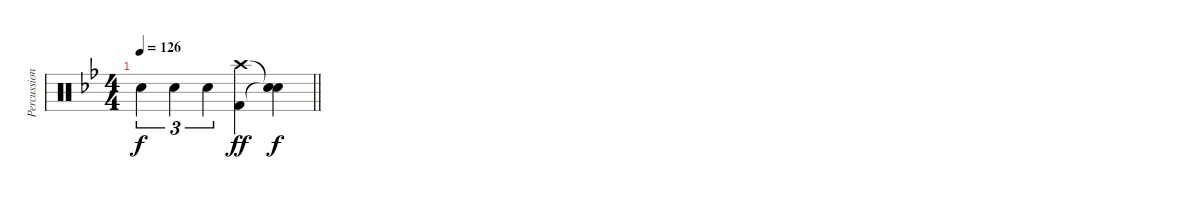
\track ("Percussion" "Percussion") {instrument percussion}
\staff {score}
\articulation defaults
\ts (4 4)
\tempo 126
\clef neutral
\barLineRight lightlight
\ks bb "Snare (hit) 2".4{tu (3 2) dy f} "Snare (hit) 2".4{tu (3 2)} "Snare (hit) 2".4{tu (3 2)}
("Crash high (hit)" "Kick (hit) 2").4{dy ff} ("Snare (hit)"{t} "Snare (hit)"{t}).4{dy f}
